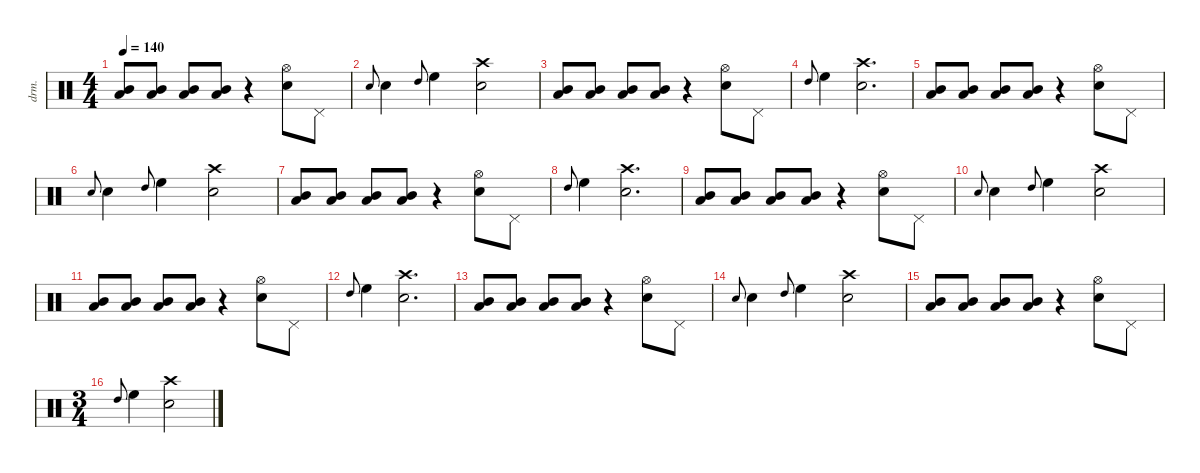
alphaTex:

\defaultSystemsLayout 4
\hideDynamics
\bracketExtendMode nobrackets
\otherSystemsTrackNameOrientation horizontal
\track ("Drums" "drm.") {multiBarRest instrument percussion}
\staff
\articulation defaults
\ts (4 4)
\tempo 140
\clef neutral
\ks c
("Mid Tom (hit)" "Low Tom (hit)").8{dy ff} ("Mid Tom (hit)" "Low Tom (hit)").8 ("Mid Tom (hit)" "Low Tom (hit)").8 ("Mid Tom (hit)" "Low Tom (hit)").8 r.4 ("Snare (hit) 2" "Hi-Hat (open)").8{dy f} "Pedal Hi-Hat (hit)".8{dy mp} |
"Snare (hit) 2".8{gr onbeat dy f} "Snare (hit) 2".4 "High Tom (hit)".8{gr onbeat dy ff} "High Floor Tom (hit)".4 ("Snare (hit) 2" "Crash high (hit)").2{dy f} |
("Mid Tom (hit)" "Low Tom (hit)").8{dy ff} ("Mid Tom (hit)" "Low Tom (hit)").8 ("Mid Tom (hit)" "Low Tom (hit)").8 ("Mid Tom (hit)" "Low Tom (hit)").8 r.4 ("Snare (hit) 2" "Hi-Hat (open)").8{dy f} "Pedal Hi-Hat (hit)".8{dy mp} |
"High Tom (hit)".8{gr onbeat dy ff} "High Floor Tom (hit)".4 ("Snare (hit) 2" "Crash high (hit)").2{d dy f} |
("Mid Tom (hit)" "Low Tom (hit)").8{dy ff} ("Mid Tom (hit)" "Low Tom (hit)").8 ("Mid Tom (hit)" "Low Tom (hit)").8 ("Mid Tom (hit)" "Low Tom (hit)").8 r.4 ("Snare (hit) 2" "Hi-Hat (open)").8{dy f} "Pedal Hi-Hat (hit)".8{dy mp} |
"Snare (hit) 2".8{gr onbeat dy f} "Snare (hit) 2".4 "High Tom (hit)".8{gr onbeat dy ff} "High Floor Tom (hit)".4 ("Snare (hit) 2" "Crash high (hit)").2{dy f} |
("Mid Tom (hit)" "Low Tom (hit)").8{dy ff} ("Mid Tom (hit)" "Low Tom (hit)").8 ("Mid Tom (hit)" "Low Tom (hit)").8 ("Mid Tom (hit)" "Low Tom (hit)").8 r.4 ("Snare (hit) 2" "Hi-Hat (open)").8{dy f} "Pedal Hi-Hat (hit)".8{dy mp} |
"High Tom (hit)".8{gr onbeat dy ff} "High Floor Tom (hit)".4 ("Snare (hit) 2" "Crash high (hit)").2{d dy f} |
("Mid Tom (hit)" "Low Tom (hit)").8{dy ff} ("Mid Tom (hit)" "Low Tom (hit)").8 ("Mid Tom (hit)" "Low Tom (hit)").8 ("Mid Tom (hit)" "Low Tom (hit)").8 r.4 ("Snare (hit) 2" "Hi-Hat (open)").8{dy f} "Pedal Hi-Hat (hit)".8{dy mp} |
"Snare (hit) 2".8{gr onbeat dy f} "Snare (hit) 2".4 "High Tom (hit)".8{gr onbeat dy ff} "High Floor Tom (hit)".4 ("Snare (hit) 2" "Crash high (hit)").2{dy f} |
("Mid Tom (hit)" "Low Tom (hit)").8{dy ff} ("Mid Tom (hit)" "Low Tom (hit)").8 ("Mid Tom (hit)" "Low Tom (hit)").8 ("Mid Tom (hit)" "Low Tom (hit)").8 r.4 ("Snare (hit) 2" "Hi-Hat (open)").8{dy f} "Pedal Hi-Hat (hit)".8{dy mp} |
"High Tom (hit)".8{gr onbeat dy ff} "High Floor Tom (hit)".4 ("Snare (hit) 2" "Crash high (hit)").2{d dy f} |
("Mid Tom (hit)" "Low Tom (hit)").8{dy ff} ("Mid Tom (hit)" "Low Tom (hit)").8 ("Mid Tom (hit)" "Low Tom (hit)").8 ("Mid Tom (hit)" "Low Tom (hit)").8 r.4 ("Snare (hit) 2" "Hi-Hat (open)").8{dy f} "Pedal Hi-Hat (hit)".8{dy mp} |
"Snare (hit) 2".8{gr onbeat dy f} "Snare (hit) 2".4 "High Tom (hit)".8{gr onbeat dy ff} "High Floor Tom (hit)".4 ("Snare (hit) 2" "Crash high (hit)").2{dy f} |
("Mid Tom (hit)" "Low Tom (hit)").8{dy ff} ("Mid Tom (hit)" "Low Tom (hit)").8 ("Mid Tom (hit)" "Low Tom (hit)").8 ("Mid Tom (hit)" "Low Tom (hit)").8 r.4 ("Snare (hit) 2" "Hi-Hat (open)").8{dy f} "Pedal Hi-Hat (hit)".8{dy mp} |
\ts (3 4)
\beaming (8 2 2 2)
"High Tom (hit)".8{gr onbeat dy ff} "High Floor Tom (hit)".4 ("Snare (hit) 2" "Crash high (hit)").2{dy f}
